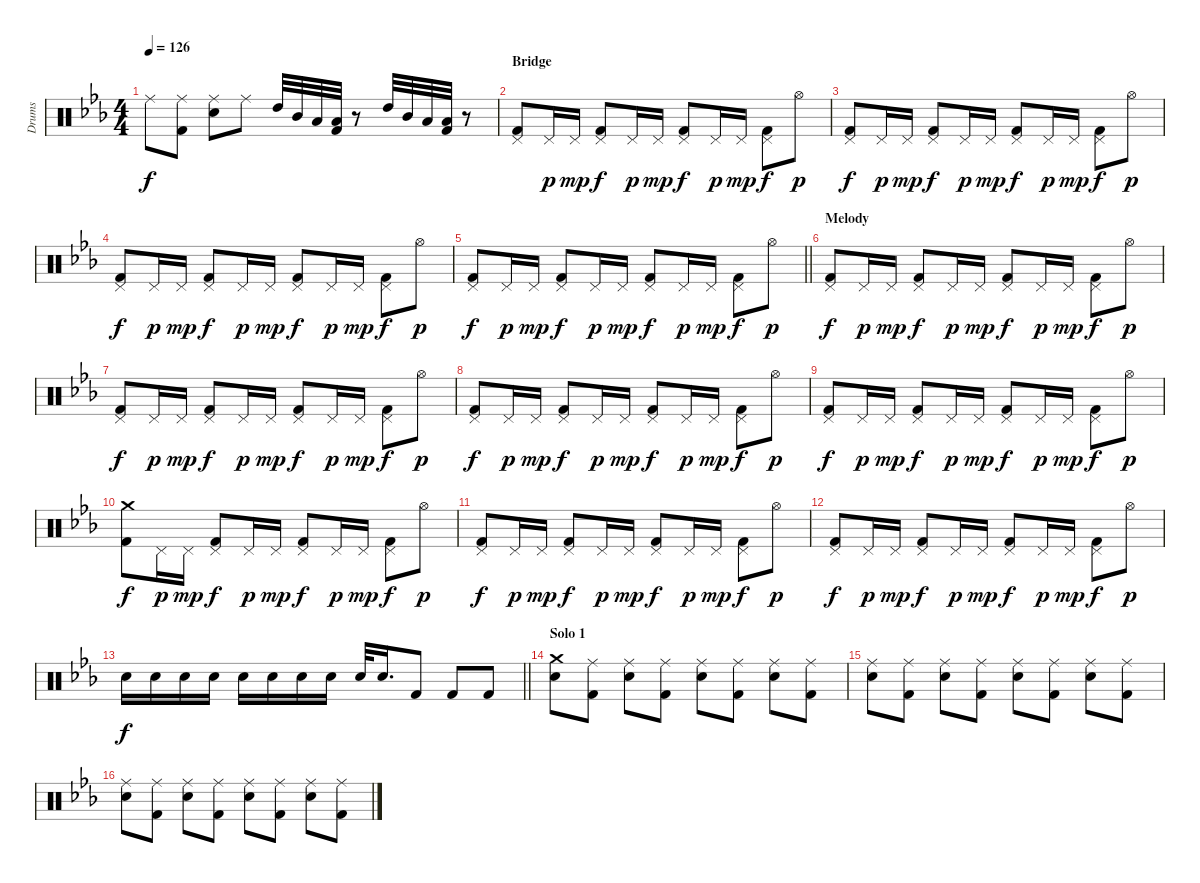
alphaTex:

\track ("Drums" "Drums") {instrument percussion}
\staff {score}
\articulation defaults
\ts (4 4)
\tempo 126
\clef neutral
\ks eb "Ride (middle)".8{dy f}
("Ride (middle)" "Kick (hit) 2").8 ("Ride (middle)" "Electric Snare (hit)").8 "Ride (middle)".8 "High Tom (hit)".32 "Mid Tom (hit)".32 "Low Tom (hit)".32 ("Low Tom (hit)" "Kick (hit) 2").32 r.8 "High Tom (hit)".32 "Mid Tom (hit)".32 "Low Tom (hit)".32 ("Low Tom (hit)" "Kick (hit) 2").32 r.8 |
\section ("" "Bridge")
("Pedal Hi-Hat (hit)" "Kick (hit) 2").8 "Pedal Hi-Hat (hit)".16{dy p} "Pedal Hi-Hat (hit)".16{dy mp} ("Pedal Hi-Hat (hit)" "Kick (hit) 2").8{dy f} "Pedal Hi-Hat (hit)".16{dy p} "Pedal Hi-Hat (hit)".16{dy mp} ("Pedal Hi-Hat (hit)" "Kick (hit) 2").8{dy f} "Pedal Hi-Hat (hit)".16{dy p} "Pedal Hi-Hat (hit)".16{dy mp} ("Pedal Hi-Hat (hit)" "Kick (hit) 2").8{dy f} "Hi-Hat (open)".8{dy p} |
("Pedal Hi-Hat (hit)" "Kick (hit) 2").8{dy f} "Pedal Hi-Hat (hit)".16{dy p} "Pedal Hi-Hat (hit)".16{dy mp} ("Pedal Hi-Hat (hit)" "Kick (hit) 2").8{dy f} "Pedal Hi-Hat (hit)".16{dy p} "Pedal Hi-Hat (hit)".16{dy mp} ("Pedal Hi-Hat (hit)" "Kick (hit) 2").8{dy f} "Pedal Hi-Hat (hit)".16{dy p} "Pedal Hi-Hat (hit)".16{dy mp} ("Pedal Hi-Hat (hit)" "Kick (hit) 2").8{dy f} "Hi-Hat (open)".8{dy p} |
("Pedal Hi-Hat (hit)" "Kick (hit) 2").8{dy f} "Pedal Hi-Hat (hit)".16{dy p} "Pedal Hi-Hat (hit)".16{dy mp} ("Pedal Hi-Hat (hit)" "Kick (hit) 2").8{dy f} "Pedal Hi-Hat (hit)".16{dy p} "Pedal Hi-Hat (hit)".16{dy mp} ("Pedal Hi-Hat (hit)" "Kick (hit) 2").8{dy f} "Pedal Hi-Hat (hit)".16{dy p} "Pedal Hi-Hat (hit)".16{dy mp} ("Pedal Hi-Hat (hit)" "Kick (hit) 2").8{dy f} "Hi-Hat (open)".8{dy p} |
\barLineRight lightlight
("Pedal Hi-Hat (hit)" "Kick (hit) 2").8{dy f} "Pedal Hi-Hat (hit)".16{dy p} "Pedal Hi-Hat (hit)".16{dy mp} ("Pedal Hi-Hat (hit)" "Kick (hit) 2").8{dy f} "Pedal Hi-Hat (hit)".16{dy p} "Pedal Hi-Hat (hit)".16{dy mp} ("Pedal Hi-Hat (hit)" "Kick (hit) 2").8{dy f} "Pedal Hi-Hat (hit)".16{dy p} "Pedal Hi-Hat (hit)".16{dy mp} ("Pedal Hi-Hat (hit)" "Kick (hit) 2").8{dy f} "Hi-Hat (open)".8{dy p} |
\section ("" "Melody")
("Pedal Hi-Hat (hit)" "Kick (hit) 2").8{dy f} "Pedal Hi-Hat (hit)".16{dy p} "Pedal Hi-Hat (hit)".16{dy mp} ("Pedal Hi-Hat (hit)" "Kick (hit) 2").8{dy f} "Pedal Hi-Hat (hit)".16{dy p} "Pedal Hi-Hat (hit)".16{dy mp} ("Pedal Hi-Hat (hit)" "Kick (hit) 2").8{dy f} "Pedal Hi-Hat (hit)".16{dy p} "Pedal Hi-Hat (hit)".16{dy mp} ("Pedal Hi-Hat (hit)" "Kick (hit) 2").8{dy f} "Hi-Hat (open)".8{dy p} |
("Pedal Hi-Hat (hit)" "Kick (hit) 2").8{dy f} "Pedal Hi-Hat (hit)".16{dy p} "Pedal Hi-Hat (hit)".16{dy mp} ("Pedal Hi-Hat (hit)" "Kick (hit) 2").8{dy f} "Pedal Hi-Hat (hit)".16{dy p} "Pedal Hi-Hat (hit)".16{dy mp} ("Pedal Hi-Hat (hit)" "Kick (hit) 2").8{dy f} "Pedal Hi-Hat (hit)".16{dy p} "Pedal Hi-Hat (hit)".16{dy mp} ("Pedal Hi-Hat (hit)" "Kick (hit) 2").8{dy f} "Hi-Hat (open)".8{dy p} |
("Pedal Hi-Hat (hit)" "Kick (hit) 2").8{dy f} "Pedal Hi-Hat (hit)".16{dy p} "Pedal Hi-Hat (hit)".16{dy mp} ("Pedal Hi-Hat (hit)" "Kick (hit) 2").8{dy f} "Pedal Hi-Hat (hit)".16{dy p} "Pedal Hi-Hat (hit)".16{dy mp} ("Pedal Hi-Hat (hit)" "Kick (hit) 2").8{dy f} "Pedal Hi-Hat (hit)".16{dy p} "Pedal Hi-Hat (hit)".16{dy mp} ("Pedal Hi-Hat (hit)" "Kick (hit) 2").8{dy f} "Hi-Hat (open)".8{dy p} |
("Pedal Hi-Hat (hit)" "Kick (hit) 2").8{dy f} "Pedal Hi-Hat (hit)".16{dy p} "Pedal Hi-Hat (hit)".16{dy mp} ("Pedal Hi-Hat (hit)" "Kick (hit) 2").8{dy f} "Pedal Hi-Hat (hit)".16{dy p} "Pedal Hi-Hat (hit)".16{dy mp} ("Pedal Hi-Hat (hit)" "Kick (hit) 2").8{dy f} "Pedal Hi-Hat (hit)".16{dy p} "Pedal Hi-Hat (hit)".16{dy mp} ("Pedal Hi-Hat (hit)" "Kick (hit) 2").8{dy f} "Hi-Hat (open)".8{dy p} |
("Crash medium (hit)" "Kick (hit) 2").8{dy f} "Pedal Hi-Hat (hit)".16{dy p} "Pedal Hi-Hat (hit)".16{dy mp} ("Pedal Hi-Hat (hit)" "Kick (hit) 2").8{dy f} "Pedal Hi-Hat (hit)".16{dy p} "Pedal Hi-Hat (hit)".16{dy mp} ("Pedal Hi-Hat (hit)" "Kick (hit) 2").8{dy f} "Pedal Hi-Hat (hit)".16{dy p} "Pedal Hi-Hat (hit)".16{dy mp} ("Pedal Hi-Hat (hit)" "Kick (hit) 2").8{dy f} "Hi-Hat (open)".8{dy p} |
("Pedal Hi-Hat (hit)" "Kick (hit) 2").8{dy f} "Pedal Hi-Hat (hit)".16{dy p} "Pedal Hi-Hat (hit)".16{dy mp} ("Pedal Hi-Hat (hit)" "Kick (hit) 2").8{dy f} "Pedal Hi-Hat (hit)".16{dy p} "Pedal Hi-Hat (hit)".16{dy mp} ("Pedal Hi-Hat (hit)" "Kick (hit) 2").8{dy f} "Pedal Hi-Hat (hit)".16{dy p} "Pedal Hi-Hat (hit)".16{dy mp} ("Pedal Hi-Hat (hit)" "Kick (hit) 2").8{dy f} "Hi-Hat (open)".8{dy p} |
("Pedal Hi-Hat (hit)" "Kick (hit) 2").8{dy f} "Pedal Hi-Hat (hit)".16{dy p} "Pedal Hi-Hat (hit)".16{dy mp} ("Pedal Hi-Hat (hit)" "Kick (hit) 2").8{dy f} "Pedal Hi-Hat (hit)".16{dy p} "Pedal Hi-Hat (hit)".16{dy mp} ("Pedal Hi-Hat (hit)" "Kick (hit) 2").8{dy f} "Pedal Hi-Hat (hit)".16{dy p} "Pedal Hi-Hat (hit)".16{dy mp} ("Pedal Hi-Hat (hit)" "Kick (hit) 2").8{dy f} "Hi-Hat (open)".8{dy p} |
\barLineRight lightlight "Electric Snare (hit)".16{dy f} "Electric Snare (hit)".16 "Electric Snare (hit)".16 "Electric Snare (hit)".16 "Electric Snare (hit)".16 "Electric Snare (hit)".16 "Electric Snare (hit)".16 "Electric Snare (hit)".16 "Electric Snare (hit)".32 "Electric Snare (hit)".16{d} "Kick (hit) 2".8 "Kick (hit) 2".8 "Kick (hit) 2".8
|
\section ("" "Solo 1")
("Crash medium (hit)" "Electric Snare (hit)").8 ("Ride (middle)" "Kick (hit) 2").8 ("Ride (middle)" "Electric Snare (hit)").8 ("Ride (middle)" "Kick (hit) 2").8 ("Ride (middle)" "Electric Snare (hit)").8 ("Ride (middle)" "Kick (hit) 2").8 ("Ride (middle)" "Electric Snare (hit)").8 ("Ride (middle)" "Kick (hit) 2").8 |
("Ride (middle)" "Electric Snare (hit)").8 ("Ride (middle)" "Kick (hit) 2").8 ("Ride (middle)" "Electric Snare (hit)").8 ("Ride (middle)" "Kick (hit) 2").8 ("Ride (middle)" "Electric Snare (hit)").8 ("Ride (middle)" "Kick (hit) 2").8 ("Ride (middle)" "Electric Snare (hit)").8 ("Ride (middle)" "Kick (hit) 2").8 |
("Ride (middle)" "Electric Snare (hit)").8 ("Ride (middle)" "Kick (hit) 2").8 ("Ride (middle)" "Electric Snare (hit)").8 ("Ride (middle)" "Kick (hit) 2").8 ("Ride (middle)" "Electric Snare (hit)").8 ("Ride (middle)" "Kick (hit) 2").8 ("Ride (middle)" "Electric Snare (hit)").8 ("Ride (middle)" "Kick (hit) 2").8
